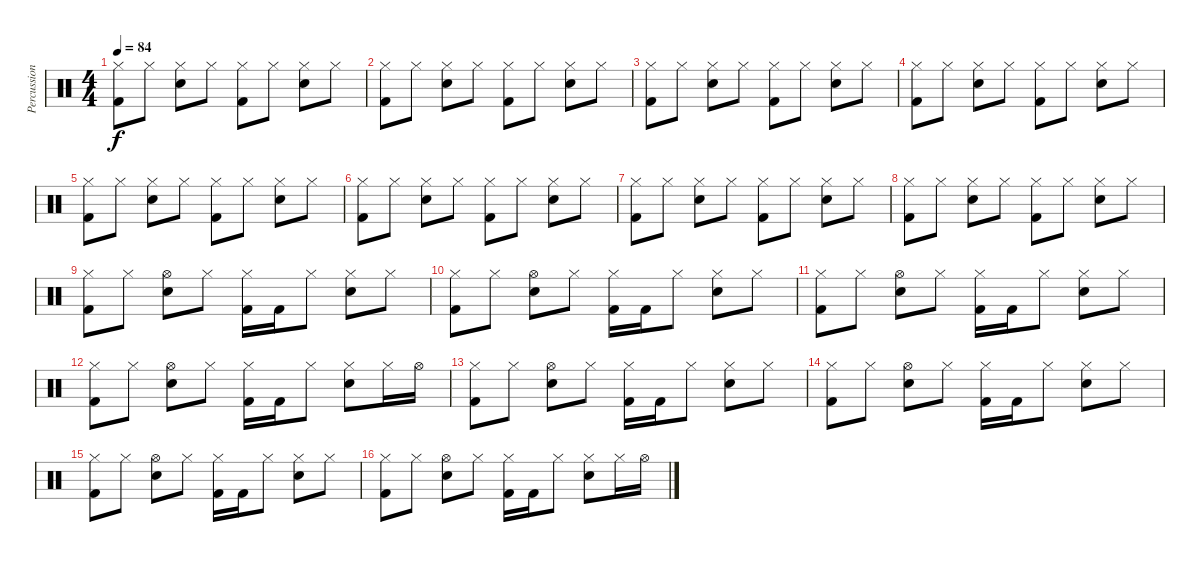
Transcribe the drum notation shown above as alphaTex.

\track ("Percussion" "Percussion") {instrument percussion}
\staff {score}
\articulation defaults
\ts (4 4)
\tempo 84
\clef neutral
\ks c
("Hi-Hat (closed)" "Kick (hit) 2").8{dy f} "Hi-Hat (closed)".8 ("Hi-Hat (closed)" "Electric Snare (hit)").8 "Hi-Hat (closed)".8 ("Hi-Hat (closed)" "Kick (hit) 2").8 "Hi-Hat (closed)".8 ("Hi-Hat (closed)" "Electric Snare (hit)").8 "Hi-Hat (closed)".8 |
("Hi-Hat (closed)" "Kick (hit) 2").8 "Hi-Hat (closed)".8 ("Hi-Hat (closed)" "Electric Snare (hit)").8 "Hi-Hat (closed)".8 ("Hi-Hat (closed)" "Kick (hit) 2").8 "Hi-Hat (closed)".8 ("Hi-Hat (closed)" "Electric Snare (hit)").8 "Hi-Hat (closed)".8 |
("Hi-Hat (closed)" "Kick (hit) 2").8 "Hi-Hat (closed)".8 ("Hi-Hat (closed)" "Electric Snare (hit)").8 "Hi-Hat (closed)".8 ("Hi-Hat (closed)" "Kick (hit) 2").8 "Hi-Hat (closed)".8 ("Hi-Hat (closed)" "Electric Snare (hit)").8 "Hi-Hat (closed)".8 |
("Hi-Hat (closed)" "Kick (hit) 2").8 "Hi-Hat (closed)".8 ("Hi-Hat (closed)" "Electric Snare (hit)").8 "Hi-Hat (closed)".8 ("Hi-Hat (closed)" "Kick (hit) 2").8 "Hi-Hat (closed)".8 ("Hi-Hat (closed)" "Electric Snare (hit)").8 "Hi-Hat (closed)".8 |
("Hi-Hat (closed)" "Kick (hit) 2").8 "Hi-Hat (closed)".8 ("Hi-Hat (closed)" "Electric Snare (hit)").8 "Hi-Hat (closed)".8 ("Hi-Hat (closed)" "Kick (hit) 2").8 "Hi-Hat (closed)".8 ("Hi-Hat (closed)" "Electric Snare (hit)").8 "Hi-Hat (closed)".8 |
("Hi-Hat (closed)" "Kick (hit) 2").8 "Hi-Hat (closed)".8 ("Hi-Hat (closed)" "Electric Snare (hit)").8 "Hi-Hat (closed)".8 ("Hi-Hat (closed)" "Kick (hit) 2").8 "Hi-Hat (closed)".8 ("Hi-Hat (closed)" "Electric Snare (hit)").8 "Hi-Hat (closed)".8 |
("Hi-Hat (closed)" "Kick (hit) 2").8 "Hi-Hat (closed)".8 ("Hi-Hat (closed)" "Electric Snare (hit)").8 "Hi-Hat (closed)".8 ("Hi-Hat (closed)" "Kick (hit) 2").8 "Hi-Hat (closed)".8 ("Hi-Hat (closed)" "Electric Snare (hit)").8 "Hi-Hat (closed)".8 |
("Hi-Hat (closed)" "Kick (hit) 2").8 "Hi-Hat (closed)".8 ("Hi-Hat (closed)" "Electric Snare (hit)").8 "Hi-Hat (closed)".8 ("Hi-Hat (closed)" "Kick (hit) 2").8 "Hi-Hat (closed)".8 ("Hi-Hat (closed)" "Electric Snare (hit)").8 "Hi-Hat (closed)".8 |
("Hi-Hat (closed)" "Kick (hit) 2").8 "Hi-Hat (closed)".8 ("Hi-Hat (open)" "Electric Snare (hit)").8 "Hi-Hat (closed)".8 ("Hi-Hat (closed)" "Kick (hit) 2").16 "Kick (hit) 2".16 "Hi-Hat (closed)".8 ("Hi-Hat (closed)" "Electric Snare (hit)").8 "Hi-Hat (closed)".8 |
("Hi-Hat (closed)" "Kick (hit) 2").8 "Hi-Hat (closed)".8 ("Hi-Hat (open)" "Electric Snare (hit)").8 "Hi-Hat (closed)".8 ("Hi-Hat (closed)" "Kick (hit) 2").16 "Kick (hit) 2".16 "Hi-Hat (closed)".8 ("Hi-Hat (closed)" "Electric Snare (hit)").8 "Hi-Hat (closed)".8 |
("Hi-Hat (closed)" "Kick (hit) 2").8 "Hi-Hat (closed)".8 ("Hi-Hat (open)" "Electric Snare (hit)").8 "Hi-Hat (closed)".8 ("Hi-Hat (closed)" "Kick (hit) 2").16 "Kick (hit) 2".16 "Hi-Hat (closed)".8 ("Hi-Hat (closed)" "Electric Snare (hit)").8 "Hi-Hat (closed)".8 |
("Hi-Hat (closed)" "Kick (hit) 2").8 "Hi-Hat (closed)".8 ("Hi-Hat (open)" "Electric Snare (hit)").8 "Hi-Hat (closed)".8 ("Hi-Hat (closed)" "Kick (hit) 2").16 "Kick (hit) 2".16 "Hi-Hat (closed)".8 ("Hi-Hat (closed)" "Electric Snare (hit)").8 "Hi-Hat (closed)".16 "Hi-Hat (open)".16 |
("Hi-Hat (closed)" "Kick (hit) 2").8 "Hi-Hat (closed)".8 ("Hi-Hat (open)" "Electric Snare (hit)").8 "Hi-Hat (closed)".8 ("Hi-Hat (closed)" "Kick (hit) 2").16 "Kick (hit) 2".16 "Hi-Hat (closed)".8 ("Hi-Hat (closed)" "Electric Snare (hit)").8 "Hi-Hat (closed)".8 |
("Hi-Hat (closed)" "Kick (hit) 2").8 "Hi-Hat (closed)".8 ("Hi-Hat (open)" "Electric Snare (hit)").8 "Hi-Hat (closed)".8 ("Hi-Hat (closed)" "Kick (hit) 2").16 "Kick (hit) 2".16 "Hi-Hat (closed)".8 ("Hi-Hat (closed)" "Electric Snare (hit)").8 "Hi-Hat (closed)".8 |
("Hi-Hat (closed)" "Kick (hit) 2").8 "Hi-Hat (closed)".8 ("Hi-Hat (open)" "Electric Snare (hit)").8 "Hi-Hat (closed)".8 ("Hi-Hat (closed)" "Kick (hit) 2").16 "Kick (hit) 2".16 "Hi-Hat (closed)".8 ("Hi-Hat (closed)" "Electric Snare (hit)").8 "Hi-Hat (closed)".8 |
("Hi-Hat (closed)" "Kick (hit) 2").8 "Hi-Hat (closed)".8 ("Hi-Hat (open)" "Electric Snare (hit)").8 "Hi-Hat (closed)".8 ("Hi-Hat (closed)" "Kick (hit) 2").16 "Kick (hit) 2".16 "Hi-Hat (closed)".8 ("Hi-Hat (closed)" "Electric Snare (hit)").8 "Hi-Hat (closed)".16 "Hi-Hat (open)".16
